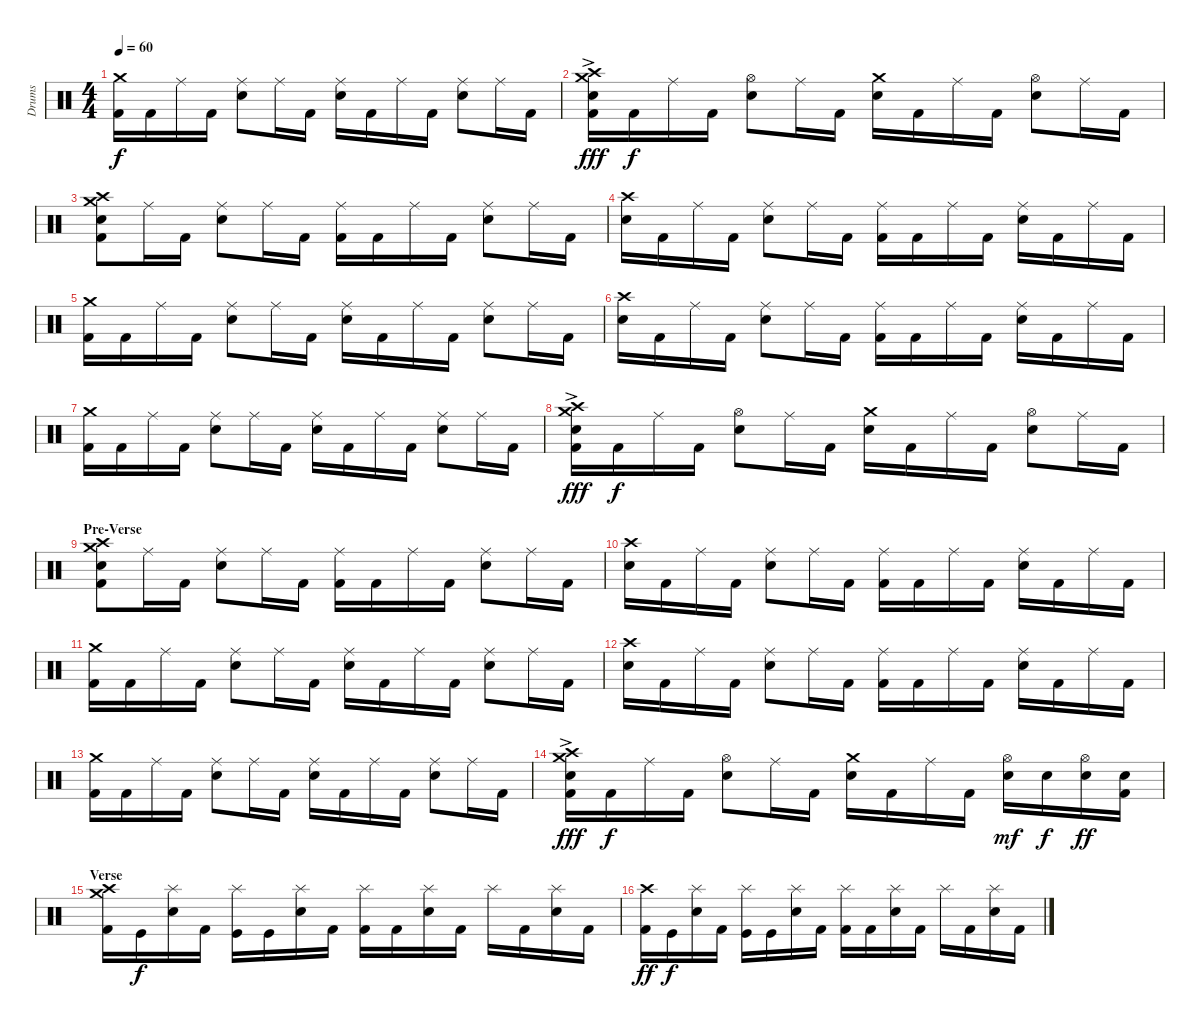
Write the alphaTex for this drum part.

\track ("Drums" "Drums") {instrument percussion}
\staff {score}
\articulation defaults
\ts (4 4)
\tempo 60
\clef neutral
\ks c
("Crash medium (hit)" "Kick (hit) 2").16{dy f} "Kick (hit) 2".16 "Ride (middle)".16 "Kick (hit) 2".16 ("Ride (middle)" "Snare (hit) 2").8 "Ride (middle)".16 "Kick (hit) 2".16 ("Ride (middle)" "Snare (hit) 2").16 "Kick (hit) 2".16 "Ride (middle)".16 "Kick (hit) 2".16 ("Ride (middle)" "Snare (hit) 2").8 "Ride (middle)".16 "Kick (hit) 2".16 |
("Crash medium (hit)"{ac} "Crash high (hit)"{ac} "Snare (hit) 2" "Kick (hit) 2").16{dy fff} "Kick (hit) 2".16{dy f} "Ride (middle)".16 "Kick (hit) 2".16 ("Hi-Hat (open)" "Snare (hit) 2").8 "Ride (middle)".16 "Kick (hit) 2".16 ("Crash medium (hit)" "Snare (hit) 2").16 "Kick (hit) 2".16 "Ride (middle)".16 "Kick (hit) 2".16 ("Hi-Hat (open)" "Snare (hit) 2").8 "Ride (middle)".16 "Kick (hit) 2".16 |
("Crash medium (hit)" "Crash high (hit)" "Snare (hit) 2" "Kick (hit) 2").8 "Ride (middle)".16 "Kick (hit) 2".16 ("Ride (middle)" "Snare (hit) 2").8 "Ride (middle)".16 "Kick (hit) 2".16 ("Ride (middle)" "Kick (hit) 2").16 "Kick (hit) 2".16 "Ride (middle)".16 "Kick (hit) 2".16 ("Ride (middle)" "Snare (hit) 2").8 "Ride (middle)".16 "Kick (hit) 2".16 |
("Crash high (hit)" "Snare (hit) 2").16 "Kick (hit) 2".16 "Ride (middle)".16 "Kick (hit) 2".16 ("Ride (middle)" "Snare (hit) 2").8 "Ride (middle)".16 "Kick (hit) 2".16 ("Ride (middle)" "Kick (hit) 2").16 "Kick (hit) 2".16 "Ride (middle)".16 "Kick (hit) 2".16 ("Ride (middle)" "Snare (hit) 2").16 "Kick (hit) 2".16 "Ride (middle)".16 "Kick (hit) 2".16 |
("Crash medium (hit)" "Kick (hit) 2").16 "Kick (hit) 2".16 "Ride (middle)".16 "Kick (hit) 2".16 ("Ride (middle)" "Snare (hit) 2").8 "Ride (middle)".16 "Kick (hit) 2".16 ("Ride (middle)" "Snare (hit) 2").16 "Kick (hit) 2".16 "Ride (middle)".16 "Kick (hit) 2".16 ("Ride (middle)" "Snare (hit) 2").8 "Ride (middle)".16 "Kick (hit) 2".16 |
("Crash high (hit)" "Snare (hit) 2").16 "Kick (hit) 2".16 "Ride (middle)".16 "Kick (hit) 2".16 ("Ride (middle)" "Snare (hit) 2").8 "Ride (middle)".16 "Kick (hit) 2".16 ("Ride (middle)" "Kick (hit) 2").16 "Kick (hit) 2".16 "Ride (middle)".16 "Kick (hit) 2".16 ("Ride (middle)" "Snare (hit) 2").16 "Kick (hit) 2".16 "Ride (middle)".16 "Kick (hit) 2".16 |
("Crash medium (hit)" "Kick (hit) 2").16 "Kick (hit) 2".16 "Ride (middle)".16 "Kick (hit) 2".16 ("Ride (middle)" "Snare (hit) 2").8 "Ride (middle)".16 "Kick (hit) 2".16 ("Ride (middle)" "Snare (hit) 2").16 "Kick (hit) 2".16 "Ride (middle)".16 "Kick (hit) 2".16 ("Ride (middle)" "Snare (hit) 2").8 "Ride (middle)".16 "Kick (hit) 2".16 |
("Crash medium (hit)"{ac} "Crash high (hit)"{ac} "Snare (hit) 2" "Kick (hit) 2").16{dy fff} "Kick (hit) 2".16{dy f} "Ride (middle)".16 "Kick (hit) 2".16 ("Hi-Hat (open)" "Snare (hit) 2").8 "Ride (middle)".16 "Kick (hit) 2".16 ("Crash medium (hit)" "Snare (hit) 2").16 "Kick (hit) 2".16 "Ride (middle)".16 "Kick (hit) 2".16 ("Hi-Hat (open)" "Snare (hit) 2").8 "Ride (middle)".16 "Kick (hit) 2".16 |
\section ("" "Pre-Verse")
("Crash medium (hit)" "Crash high (hit)" "Snare (hit) 2" "Kick (hit) 2").8 "Ride (middle)".16 "Kick (hit) 2".16 ("Ride (middle)" "Snare (hit) 2").8 "Ride (middle)".16 "Kick (hit) 2".16 ("Ride (middle)" "Kick (hit) 2").16 "Kick (hit) 2".16 "Ride (middle)".16 "Kick (hit) 2".16 ("Ride (middle)" "Snare (hit) 2").8 "Ride (middle)".16 "Kick (hit) 2".16 |
("Crash high (hit)" "Snare (hit) 2").16 "Kick (hit) 2".16 "Ride (middle)".16 "Kick (hit) 2".16 ("Ride (middle)" "Snare (hit) 2").8 "Ride (middle)".16 "Kick (hit) 2".16 ("Ride (middle)" "Kick (hit) 2").16 "Kick (hit) 2".16 "Ride (middle)".16 "Kick (hit) 2".16 ("Ride (middle)" "Snare (hit) 2").16 "Kick (hit) 2".16 "Ride (middle)".16 "Kick (hit) 2".16 |
("Crash medium (hit)" "Kick (hit) 2").16 "Kick (hit) 2".16 "Ride (middle)".16 "Kick (hit) 2".16 ("Ride (middle)" "Snare (hit) 2").8 "Ride (middle)".16 "Kick (hit) 2".16 ("Ride (middle)" "Snare (hit) 2").16 "Kick (hit) 2".16 "Ride (middle)".16 "Kick (hit) 2".16 ("Ride (middle)" "Snare (hit) 2").8 "Ride (middle)".16 "Kick (hit) 2".16 |
("Crash high (hit)" "Snare (hit) 2").16 "Kick (hit) 2".16 "Ride (middle)".16 "Kick (hit) 2".16 ("Ride (middle)" "Snare (hit) 2").8 "Ride (middle)".16 "Kick (hit) 2".16 ("Ride (middle)" "Kick (hit) 2").16 "Kick (hit) 2".16 "Ride (middle)".16 "Kick (hit) 2".16 ("Ride (middle)" "Snare (hit) 2").16 "Kick (hit) 2".16 "Ride (middle)".16 "Kick (hit) 2".16 |
("Crash medium (hit)" "Kick (hit) 2").16 "Kick (hit) 2".16 "Ride (middle)".16 "Kick (hit) 2".16 ("Ride (middle)" "Snare (hit) 2").8 "Ride (middle)".16 "Kick (hit) 2".16 ("Ride (middle)" "Snare (hit) 2").16 "Kick (hit) 2".16 "Ride (middle)".16 "Kick (hit) 2".16 ("Ride (middle)" "Snare (hit) 2").8 "Ride (middle)".16 "Kick (hit) 2".16 |
("Crash medium (hit)"{ac} "Crash high (hit)"{ac} "Snare (hit) 2" "Kick (hit) 2").16{dy fff} "Kick (hit) 2".16{dy f} "Ride (middle)".16 "Kick (hit) 2".16 ("Hi-Hat (open)" "Snare (hit) 2").8 "Ride (middle)".16 "Kick (hit) 2".16 ("Crash medium (hit)" "Snare (hit) 2").16 "Kick (hit) 2".16 "Ride (middle)".16 "Kick (hit) 2".16 ("Hi-Hat (open)" "Snare (hit) 2").16{dy mf} "Snare (hit) 2".16{dy f} ("Hi-Hat (open)" "Snare (hit) 2").16{dy ff} ("Snare (hit) 2" "Kick (hit) 2").16 |
\section ("" "Verse ")
("Crash medium (hit)" "Crash high (hit)" "Kick (hit) 2").16 "Kick (hit)".16{dy f} ("Splash (hit)" "Snare (hit) 2").16 "Kick (hit) 2".16 ("Splash (hit)" "Kick (hit)").16 "Kick (hit)".16 ("Splash (hit)" "Snare (hit) 2").16 "Kick (hit) 2".16 ("Splash (hit)" "Kick (hit) 2").16 "Kick (hit) 2".16 ("Splash (hit)" "Snare (hit) 2").16 "Kick (hit) 2".16 "Splash (hit)".16 "Kick (hit) 2".16 ("Splash (hit)" "Snare (hit) 2").16 "Kick (hit) 2".16 |
("Crash high (hit)" "Kick (hit) 2").16{dy ff} "Kick (hit)".16{dy f} ("Splash (hit)" "Snare (hit) 2").16 "Kick (hit) 2".16 ("Splash (hit)" "Kick (hit)").16 "Kick (hit)".16 ("Splash (hit)" "Snare (hit) 2").16 "Kick (hit) 2".16 ("Splash (hit)" "Kick (hit) 2").16 "Kick (hit) 2".16 ("Splash (hit)" "Snare (hit) 2").16 "Kick (hit) 2".16 "Splash (hit)".16 "Kick (hit) 2".16 ("Splash (hit)" "Snare (hit) 2").16 "Kick (hit) 2".16
